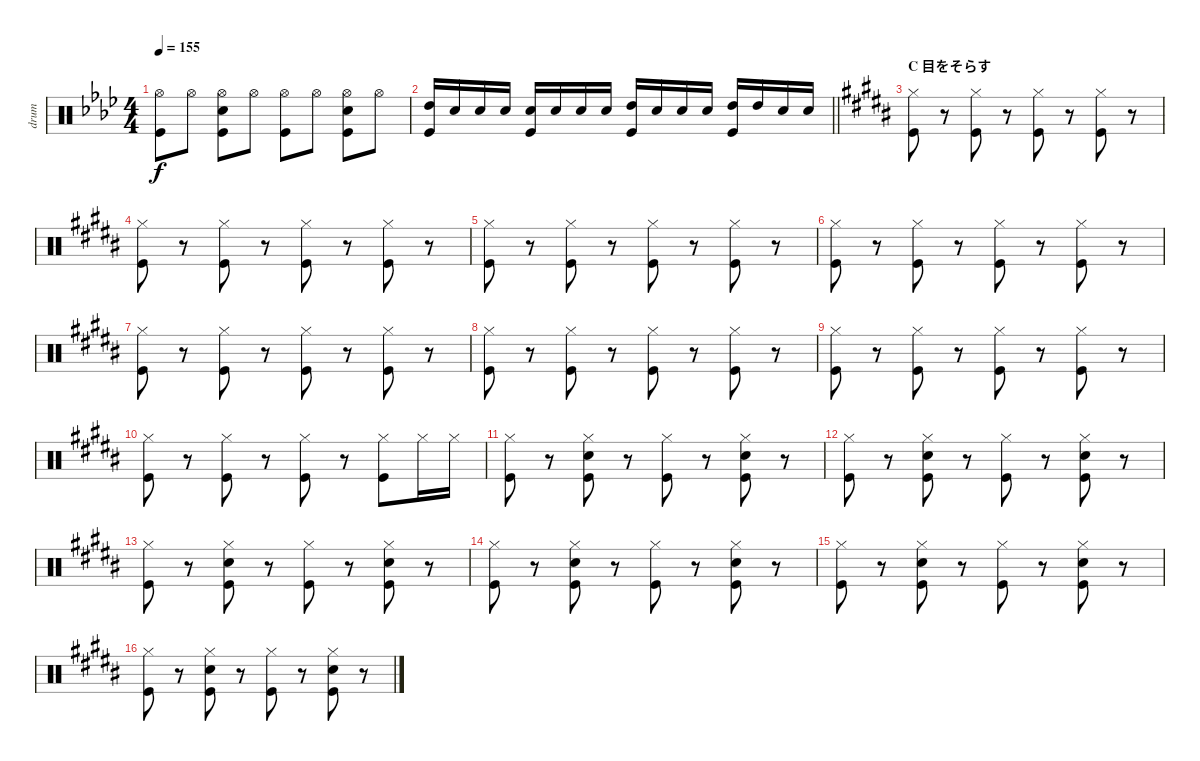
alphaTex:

\track ("drum" "drum") {instrument percussion}
\staff {score}
\articulation defaults
\ts (4 4)
\tempo 155
\clef neutral
\ks ab
("Hi-Hat (open)" "Kick (hit)").8{dy f} "Hi-Hat (open)".8 ("Hi-Hat (open)" "Snare (hit) 2" "Kick (hit)").8 "Hi-Hat (open)".8 ("Hi-Hat (open)" "Kick (hit)").8 "Hi-Hat (open)".8 ("Hi-Hat (open)" "Snare (hit) 2" "Kick (hit)").8 "Hi-Hat (open)".8 |
\barLineRight lightlight
("High Tom (hit)" "Kick (hit)").16 "Snare (hit) 2".16 "Snare (hit) 2".16 "Snare (hit) 2".16 ("Snare (hit) 2" "Kick (hit)").16 "Snare (hit) 2".16 "Snare (hit) 2".16 "Snare (hit) 2".16 ("High Tom (hit)" "Kick (hit)").16 "Snare (hit) 2".16 "Snare (hit) 2".16 "Snare (hit) 2".16 ("High Tom (hit)" "Kick (hit)").16 "High Tom (hit)".16 "Snare (hit) 2".16 "Snare (hit) 2".16 |
\section ("" "C 目をそらす")
\ks b
("Hi-Hat (closed)" "Kick (hit)").8 r.8 ("Hi-Hat (closed)" "Kick (hit)").8 r.8 ("Hi-Hat (closed)" "Kick (hit)").8 r.8 ("Hi-Hat (closed)" "Kick (hit)").8 r.8 |
("Hi-Hat (closed)" "Kick (hit)").8 r.8 ("Hi-Hat (closed)" "Kick (hit)").8 r.8 ("Hi-Hat (closed)" "Kick (hit)").8 r.8 ("Hi-Hat (closed)" "Kick (hit)").8 r.8 |
("Hi-Hat (closed)" "Kick (hit)").8 r.8 ("Hi-Hat (closed)" "Kick (hit)").8 r.8 ("Hi-Hat (closed)" "Kick (hit)").8 r.8 ("Hi-Hat (closed)" "Kick (hit)").8 r.8 |
("Hi-Hat (closed)" "Kick (hit)").8 r.8 ("Hi-Hat (closed)" "Kick (hit)").8 r.8 ("Hi-Hat (closed)" "Kick (hit)").8 r.8 ("Hi-Hat (closed)" "Kick (hit)").8 r.8 |
("Hi-Hat (closed)" "Kick (hit)").8 r.8 ("Hi-Hat (closed)" "Kick (hit)").8 r.8 ("Hi-Hat (closed)" "Kick (hit)").8 r.8 ("Hi-Hat (closed)" "Kick (hit)").8 r.8 |
("Hi-Hat (closed)" "Kick (hit)").8 r.8 ("Hi-Hat (closed)" "Kick (hit)").8 r.8 ("Hi-Hat (closed)" "Kick (hit)").8 r.8 ("Hi-Hat (closed)" "Kick (hit)").8 r.8 |
("Hi-Hat (closed)" "Kick (hit)").8 r.8 ("Hi-Hat (closed)" "Kick (hit)").8 r.8 ("Hi-Hat (closed)" "Kick (hit)").8 r.8 ("Hi-Hat (closed)" "Kick (hit)").8 r.8 |
("Hi-Hat (closed)" "Kick (hit)").8 r.8 ("Hi-Hat (closed)" "Kick (hit)").8 r.8 ("Hi-Hat (closed)" "Kick (hit)").8 r.8 ("Hi-Hat (closed)" "Kick (hit)").8 "Hi-Hat (closed)".16 "Hi-Hat (closed)".16 |
("Hi-Hat (closed)" "Kick (hit)").8 r.8 ("Hi-Hat (closed)" "Snare (hit) 2" "Kick (hit)").8 r.8 ("Hi-Hat (closed)" "Kick (hit)").8 r.8 ("Hi-Hat (closed)" "Snare (hit) 2" "Kick (hit)").8 r.8 |
("Hi-Hat (closed)" "Kick (hit)").8 r.8 ("Hi-Hat (closed)" "Snare (hit) 2" "Kick (hit)").8 r.8 ("Hi-Hat (closed)" "Kick (hit)").8 r.8 ("Hi-Hat (closed)" "Snare (hit) 2" "Kick (hit)").8 r.8 |
("Hi-Hat (closed)" "Kick (hit)").8 r.8 ("Hi-Hat (closed)" "Snare (hit) 2" "Kick (hit)").8 r.8 ("Hi-Hat (closed)" "Kick (hit)").8 r.8 ("Hi-Hat (closed)" "Snare (hit) 2" "Kick (hit)").8 r.8 |
("Hi-Hat (closed)" "Kick (hit)").8 r.8 ("Hi-Hat (closed)" "Snare (hit) 2" "Kick (hit)").8 r.8 ("Hi-Hat (closed)" "Kick (hit)").8 r.8 ("Hi-Hat (closed)" "Snare (hit) 2" "Kick (hit)").8 r.8 |
("Hi-Hat (closed)" "Kick (hit)").8 r.8 ("Hi-Hat (closed)" "Snare (hit) 2" "Kick (hit)").8 r.8 ("Hi-Hat (closed)" "Kick (hit)").8 r.8 ("Hi-Hat (closed)" "Snare (hit) 2" "Kick (hit)").8 r.8 |
("Hi-Hat (closed)" "Kick (hit)").8 r.8 ("Hi-Hat (closed)" "Snare (hit) 2" "Kick (hit)").8 r.8 ("Hi-Hat (closed)" "Kick (hit)").8 r.8 ("Hi-Hat (closed)" "Snare (hit) 2" "Kick (hit)").8 r.8
